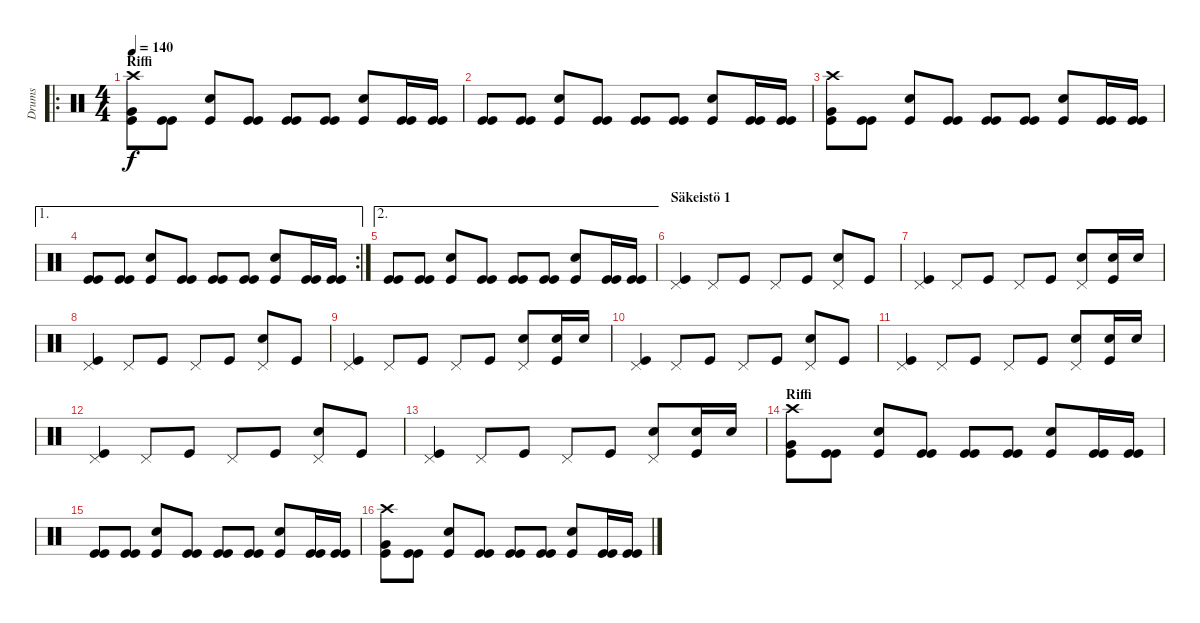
\track ("Drums" "Drums") {instrument percussion}
\staff {score}
\articulation defaults
\ro
\ts (4 4)
\section ("" "Riffi")
\tempo 140
\clef neutral
\ks c
("Crash high (hit)" "Very Low Tom (hit)" "Kick (hit)").8{dy f} ("Kick (hit)" "Kick (hit)").8 ("Snare (hit) 2" "Kick (hit)").8 ("Kick (hit)" "Kick (hit)").8 ("Kick (hit)" "Kick (hit)").8 ("Kick (hit)" "Kick (hit)").8 ("Snare (hit) 2" "Kick (hit)").8 ("Kick (hit)" "Kick (hit)").16 ("Kick (hit)" "Kick (hit)").16 |
("Kick (hit)" "Kick (hit)").8 ("Kick (hit)" "Kick (hit)").8 ("Snare (hit) 2" "Kick (hit)").8 ("Kick (hit)" "Kick (hit)").8 ("Kick (hit)" "Kick (hit)").8 ("Kick (hit)" "Kick (hit)").8 ("Snare (hit) 2" "Kick (hit)").8 ("Kick (hit)" "Kick (hit)").16 ("Kick (hit)" "Kick (hit)").16 |
("Crash high (hit)" "Very Low Tom (hit)" "Kick (hit)").8 ("Kick (hit)" "Kick (hit)").8 ("Snare (hit) 2" "Kick (hit)").8 ("Kick (hit)" "Kick (hit)").8 ("Kick (hit)" "Kick (hit)").8 ("Kick (hit)" "Kick (hit)").8 ("Snare (hit) 2" "Kick (hit)").8 ("Kick (hit)" "Kick (hit)").16 ("Kick (hit)" "Kick (hit)").16 |
\ae 1
\rc 2
("Kick (hit)" "Kick (hit)").8 ("Kick (hit)" "Kick (hit)").8 ("Snare (hit) 2" "Kick (hit)").8 ("Kick (hit)" "Kick (hit)").8 ("Kick (hit)" "Kick (hit)").8 ("Kick (hit)" "Kick (hit)").8 ("Snare (hit) 2" "Kick (hit)").8 ("Kick (hit)" "Kick (hit)").16 ("Kick (hit)" "Kick (hit)").16 |
\ae 2
("Kick (hit)" "Kick (hit)").8 ("Kick (hit)" "Kick (hit)").8 ("Snare (hit) 2" "Kick (hit)").8 ("Kick (hit)" "Kick (hit)").8 ("Kick (hit)" "Kick (hit)").8 ("Kick (hit)" "Kick (hit)").8 ("Snare (hit) 2" "Kick (hit)").8 ("Kick (hit)" "Kick (hit)").16 ("Kick (hit)" "Kick (hit)").16 |
\section ("" "Säkeistö 1")
("Pedal Hi-Hat (hit)" "Kick (hit)").4 "Pedal Hi-Hat (hit)".8 "Kick (hit)".8 "Pedal Hi-Hat (hit)".8 "Kick (hit)".8 ("Pedal Hi-Hat (hit)" "Snare (hit) 2").8 "Kick (hit)".8 |
("Pedal Hi-Hat (hit)" "Kick (hit)").4 "Pedal Hi-Hat (hit)".8 "Kick (hit)".8 "Pedal Hi-Hat (hit)".8 "Kick (hit)".8 ("Pedal Hi-Hat (hit)" "Snare (hit) 2").8 ("Snare (hit) 2" "Kick (hit)").16 "Snare (hit) 2".16 |
("Pedal Hi-Hat (hit)" "Kick (hit)").4 "Pedal Hi-Hat (hit)".8 "Kick (hit)".8 "Pedal Hi-Hat (hit)".8 "Kick (hit)".8 ("Pedal Hi-Hat (hit)" "Snare (hit) 2").8 "Kick (hit)".8 |
("Pedal Hi-Hat (hit)" "Kick (hit)").4 "Pedal Hi-Hat (hit)".8 "Kick (hit)".8 "Pedal Hi-Hat (hit)".8 "Kick (hit)".8 ("Pedal Hi-Hat (hit)" "Snare (hit) 2").8 ("Snare (hit) 2" "Kick (hit)").16 "Snare (hit) 2".16 |
("Pedal Hi-Hat (hit)" "Kick (hit)").4 "Pedal Hi-Hat (hit)".8 "Kick (hit)".8 "Pedal Hi-Hat (hit)".8 "Kick (hit)".8 ("Pedal Hi-Hat (hit)" "Snare (hit) 2").8 "Kick (hit)".8 |
("Pedal Hi-Hat (hit)" "Kick (hit)").4 "Pedal Hi-Hat (hit)".8 "Kick (hit)".8 "Pedal Hi-Hat (hit)".8 "Kick (hit)".8 ("Pedal Hi-Hat (hit)" "Snare (hit) 2").8 ("Snare (hit) 2" "Kick (hit)").16 "Snare (hit) 2".16 |
("Pedal Hi-Hat (hit)" "Kick (hit)").4 "Pedal Hi-Hat (hit)".8 "Kick (hit)".8 "Pedal Hi-Hat (hit)".8 "Kick (hit)".8 ("Pedal Hi-Hat (hit)" "Snare (hit) 2").8 "Kick (hit)".8 |
("Pedal Hi-Hat (hit)" "Kick (hit)").4 "Pedal Hi-Hat (hit)".8 "Kick (hit)".8 "Pedal Hi-Hat (hit)".8 "Kick (hit)".8 ("Pedal Hi-Hat (hit)" "Snare (hit) 2").8 ("Snare (hit) 2" "Kick (hit)").16 "Snare (hit) 2".16 |
\section ("" "Riffi")
("Crash high (hit)" "Very Low Tom (hit)" "Kick (hit)").8 ("Kick (hit)" "Kick (hit)").8 ("Snare (hit) 2" "Kick (hit)").8 ("Kick (hit)" "Kick (hit)").8 ("Kick (hit)" "Kick (hit)").8 ("Kick (hit)" "Kick (hit)").8 ("Snare (hit) 2" "Kick (hit)").8 ("Kick (hit)" "Kick (hit)").16 ("Kick (hit)" "Kick (hit)").16 |
("Kick (hit)" "Kick (hit)").8 ("Kick (hit)" "Kick (hit)").8 ("Snare (hit) 2" "Kick (hit)").8 ("Kick (hit)" "Kick (hit)").8 ("Kick (hit)" "Kick (hit)").8 ("Kick (hit)" "Kick (hit)").8 ("Snare (hit) 2" "Kick (hit)").8 ("Kick (hit)" "Kick (hit)").16 ("Kick (hit)" "Kick (hit)").16 |
("Crash high (hit)" "Very Low Tom (hit)" "Kick (hit)").8 ("Kick (hit)" "Kick (hit)").8 ("Snare (hit) 2" "Kick (hit)").8 ("Kick (hit)" "Kick (hit)").8 ("Kick (hit)" "Kick (hit)").8 ("Kick (hit)" "Kick (hit)").8 ("Snare (hit) 2" "Kick (hit)").8 ("Kick (hit)" "Kick (hit)").16 ("Kick (hit)" "Kick (hit)").16
